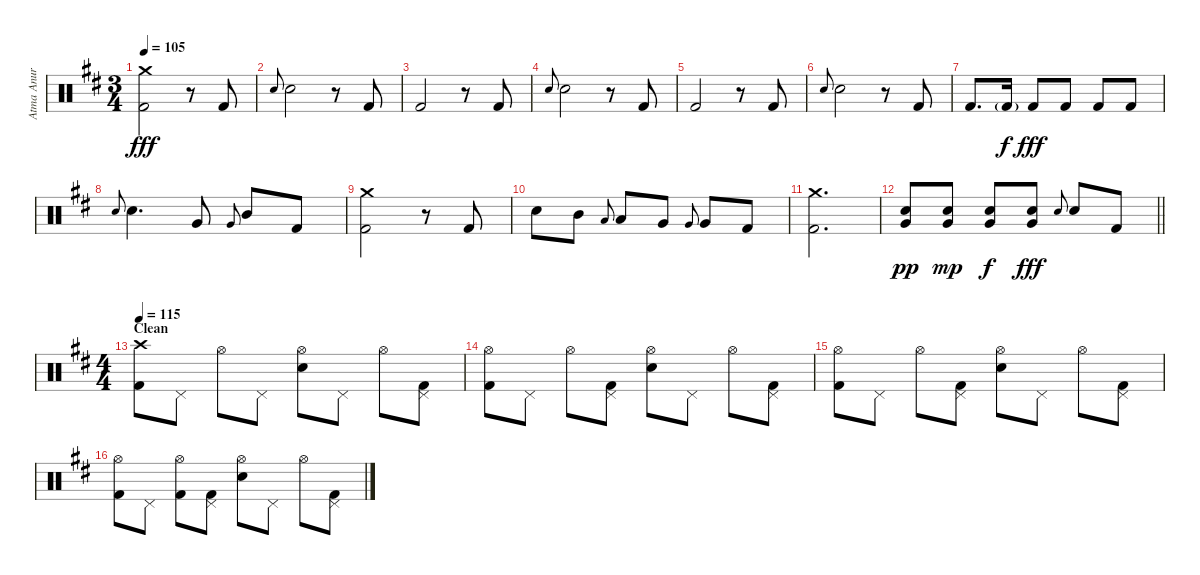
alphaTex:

\track ("Atma Anur" "Atma Anur") {instrument percussion}
\staff {score}
\articulation defaults
\ts (3 4)
\tempo 105
\clef neutral
\ks bminor
("Crash medium (hit)" "Kick (hit) 2").2{dy fff} r.8 "Kick (hit) 2".8 |
"Electric Snare (hit)".8{gr onbeat} "Electric Snare (hit)".2 r.8 "Kick (hit) 2".8 |
"Kick (hit) 2".2 r.8 "Kick (hit) 2".8 |
"Electric Snare (hit)".8{gr onbeat} "Electric Snare (hit)".2 r.8 "Kick (hit) 2".8 |
"Kick (hit) 2".2 r.8 "Kick (hit) 2".8 |
"Electric Snare (hit)".8{gr onbeat} "Electric Snare (hit)".2 r.8 "Kick (hit) 2".8 |
"Kick (hit) 2".8{d} "Kick (hit) 2"{g}.16{dy f} "Kick (hit) 2".8{dy fff} "Kick (hit) 2".8 "Kick (hit) 2".8 "Kick (hit) 2".8 |
"Electric Snare (hit)".8{gr onbeat} "Electric Snare (hit)".4{d} "Very Low Tom (hit)".8 "Very Low Tom (hit)".8{gr onbeat} "Mid Tom (hit)".8 "Kick (hit) 2".8 |
("Crash medium (hit)" "Kick (hit) 2").2 r.8 "Kick (hit) 2".8 |
"Electric Snare (hit)".8 "Mid Tom (hit)".8 "Low Tom (hit)".8{gr onbeat} "Low Tom (hit)".8 "Very Low Tom (hit)".8 "Very Low Tom (hit)".8{gr onbeat} "Very Low Tom (hit)".8 "Kick (hit) 2".8 |
("Crash medium (hit)" "Kick (hit) 2").2{d} |
\barLineRight lightlight
("Very Low Tom (hit)" "Electric Snare (hit)").8{dy pp} ("Very Low Tom (hit)" "Electric Snare (hit)").8{dy mp} ("Very Low Tom (hit)" "Electric Snare (hit)").8{dy f} ("Very Low Tom (hit)" "Electric Snare (hit)").8{dy fff} "Electric Snare (hit)".8{gr onbeat} "Electric Snare (hit)".8 "Kick (hit) 2".8 |
\ts (4 4)
\section ("" "Clean")
\tempo 115
("Crash high (hit)" "Kick (hit) 2").8 "Pedal Hi-Hat (hit)".8 "Hi-Hat (open)".8 "Pedal Hi-Hat (hit)".8 ("Hi-Hat (open)" "Electric Snare (hit)").8 "Pedal Hi-Hat (hit)".8 "Hi-Hat (open)".8 ("Pedal Hi-Hat (hit)" "Kick (hit) 2").8 |
("Hi-Hat (open)" "Kick (hit) 2").8 "Pedal Hi-Hat (hit)".8 "Hi-Hat (open)".8 ("Pedal Hi-Hat (hit)" "Kick (hit) 2").8 ("Hi-Hat (open)" "Electric Snare (hit)").8 "Pedal Hi-Hat (hit)".8 "Hi-Hat (open)".8 ("Pedal Hi-Hat (hit)" "Kick (hit) 2").8 |
("Hi-Hat (open)" "Kick (hit) 2").8 "Pedal Hi-Hat (hit)".8 "Hi-Hat (open)".8 ("Pedal Hi-Hat (hit)" "Kick (hit) 2").8 ("Hi-Hat (open)" "Electric Snare (hit)").8 "Pedal Hi-Hat (hit)".8 "Hi-Hat (open)".8 ("Pedal Hi-Hat (hit)" "Kick (hit) 2").8 |
("Hi-Hat (open)" "Kick (hit) 2").8 "Pedal Hi-Hat (hit)".8 ("Hi-Hat (open)" "Kick (hit) 2").8 ("Pedal Hi-Hat (hit)" "Kick (hit) 2").8 ("Hi-Hat (open)" "Electric Snare (hit)").8 "Pedal Hi-Hat (hit)".8 "Hi-Hat (open)".8 ("Pedal Hi-Hat (hit)" "Kick (hit) 2").8
